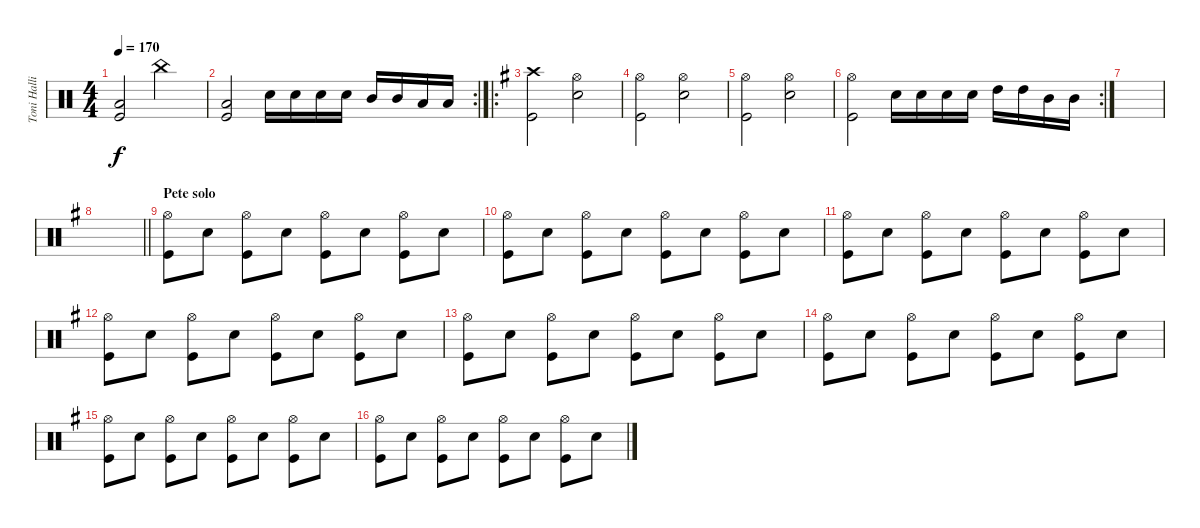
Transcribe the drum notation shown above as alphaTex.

\track ("Toni Hallio" "Toni Halli") {instrument percussion}
\staff {score}
\articulation defaults
\ts (4 4)
\tempo 170
\clef neutral
\ks c
("Low Floor Tom (hit)" "Kick (hit)").2{dy f} "China (hit)".2 |
\rc 2
("Low Floor Tom (hit)" "Kick (hit)").2 "Snare (hit) 2".16 "Snare (hit) 2".16 "Snare (hit) 2".16 "Snare (hit) 2".16 "Mid Tom (hit)".16 "Mid Tom (hit)".16 "Low Tom (hit)".16 "Low Tom (hit)".16 |
\ro
\ks g
("Crash high (hit)" "Kick (hit)").2 ("Hi-Hat (open)" "Snare (hit) 2").2 |
("Hi-Hat (open)" "Kick (hit)").2 ("Hi-Hat (open)" "Snare (hit) 2").2 |
("Hi-Hat (open)" "Kick (hit)").2 ("Hi-Hat (open)" "Snare (hit) 2").2 |
\rc 2
("Hi-Hat (open)" "Kick (hit)").2 "Snare (hit) 2".16 "Snare (hit) 2".16 "Snare (hit) 2".16 "Snare (hit) 2".16 "High Tom (hit)".16 "High Tom (hit)".16 "Mid Tom (hit)".16 "Mid Tom (hit)".16 |
|
\barLineRight lightlight
|
\section ("" "Pete solo")
("Hi-Hat (open)" "Kick (hit)").8 "Snare (hit) 2".8 ("Hi-Hat (open)" "Kick (hit)").8 "Snare (hit) 2".8 ("Hi-Hat (open)" "Kick (hit)").8 "Snare (hit) 2".8 ("Hi-Hat (open)" "Kick (hit)").8 "Snare (hit) 2".8 |
("Hi-Hat (open)" "Kick (hit)").8 "Snare (hit) 2".8 ("Hi-Hat (open)" "Kick (hit)").8 "Snare (hit) 2".8 ("Hi-Hat (open)" "Kick (hit)").8 "Snare (hit) 2".8 ("Hi-Hat (open)" "Kick (hit)").8 "Snare (hit) 2".8 |
("Hi-Hat (open)" "Kick (hit)").8 "Snare (hit) 2".8 ("Hi-Hat (open)" "Kick (hit)").8 "Snare (hit) 2".8 ("Hi-Hat (open)" "Kick (hit)").8 "Snare (hit) 2".8 ("Hi-Hat (open)" "Kick (hit)").8 "Snare (hit) 2".8 |
("Hi-Hat (open)" "Kick (hit)").8 "Snare (hit) 2".8 ("Hi-Hat (open)" "Kick (hit)").8 "Snare (hit) 2".8 ("Hi-Hat (open)" "Kick (hit)").8 "Snare (hit) 2".8 ("Hi-Hat (open)" "Kick (hit)").8 "Snare (hit) 2".8 |
("Hi-Hat (open)" "Kick (hit)").8 "Snare (hit) 2".8 ("Hi-Hat (open)" "Kick (hit)").8 "Snare (hit) 2".8 ("Hi-Hat (open)" "Kick (hit)").8 "Snare (hit) 2".8 ("Hi-Hat (open)" "Kick (hit)").8 "Snare (hit) 2".8 |
("Hi-Hat (open)" "Kick (hit)").8 "Snare (hit) 2".8 ("Hi-Hat (open)" "Kick (hit)").8 "Snare (hit) 2".8 ("Hi-Hat (open)" "Kick (hit)").8 "Snare (hit) 2".8 ("Hi-Hat (open)" "Kick (hit)").8 "Snare (hit) 2".8 |
("Hi-Hat (open)" "Kick (hit)").8 "Snare (hit) 2".8 ("Hi-Hat (open)" "Kick (hit)").8 "Snare (hit) 2".8 ("Hi-Hat (open)" "Kick (hit)").8 "Snare (hit) 2".8 ("Hi-Hat (open)" "Kick (hit)").8 "Snare (hit) 2".8 |
("Hi-Hat (open)" "Kick (hit)").8 "Snare (hit) 2".8 ("Hi-Hat (open)" "Kick (hit)").8 "Snare (hit) 2".8 ("Hi-Hat (open)" "Kick (hit)").8 "Snare (hit) 2".8 ("Hi-Hat (open)" "Kick (hit)").8 "Snare (hit) 2".8
